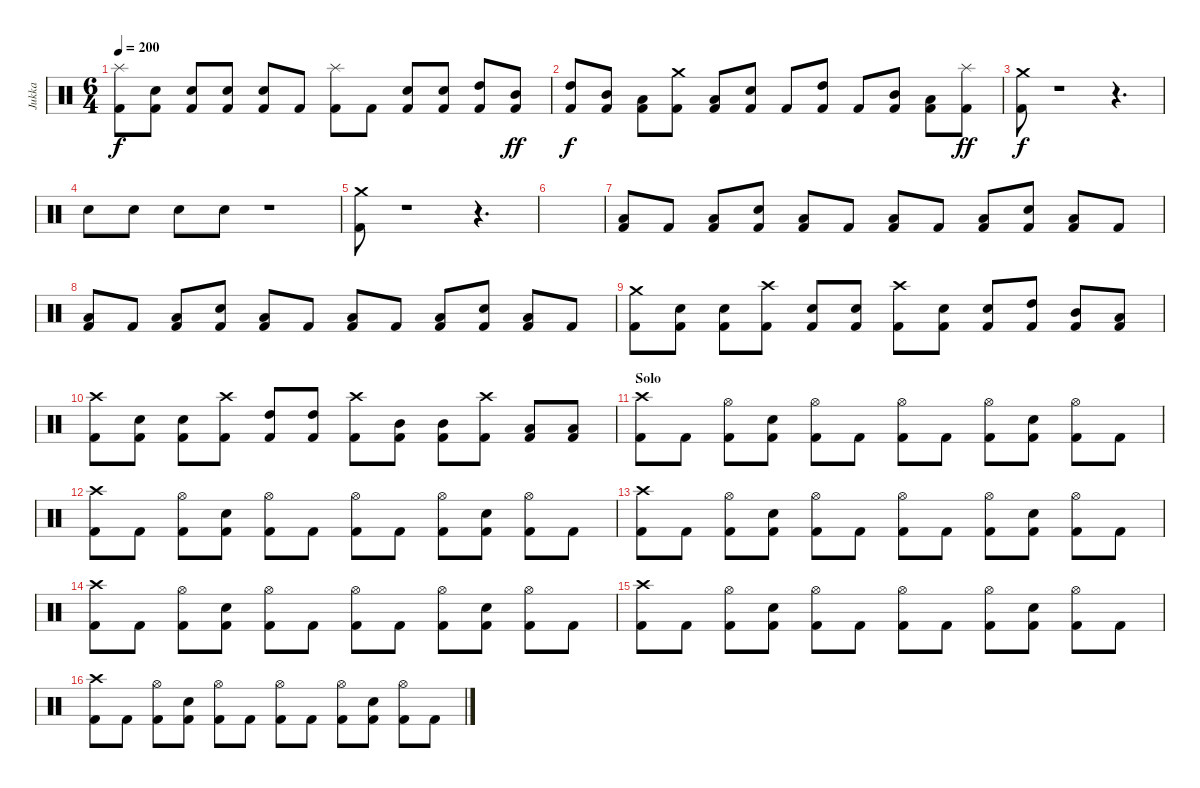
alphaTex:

\track ("Jukka" "Jukka") {instrument percussion}
\staff {score}
\articulation defaults
\ts (6 4)
\tempo 200
\clef neutral
\ks c
("Splash (hit)" "Kick (hit) 2").8{dy f} ("Snare (hit) 2" "Kick (hit) 2").8 ("Snare (hit) 2" "Kick (hit) 2").8 ("Snare (hit) 2" "Kick (hit) 2").8 ("Snare (hit) 2" "Kick (hit) 2").8 "Kick (hit) 2".8 ("Splash (hit)" "Kick (hit) 2").8 "Kick (hit) 2".8 ("Snare (hit) 2" "Kick (hit) 2").8 ("Snare (hit) 2" "Kick (hit) 2").8 ("High Tom (hit)" "Kick (hit) 2").8 ("Mid Tom (hit)" "Kick (hit) 2").8{dy ff} |
("High Tom (hit)" "Kick (hit) 2").8{dy f} ("Mid Tom (hit)" "Kick (hit) 2").8 ("Low Tom (hit)" "Kick (hit) 2").8 ("Crash medium (hit)" "Kick (hit) 2").8 ("Low Floor Tom (hit)" "Kick (hit) 2").8 ("Snare (hit) 2" "Kick (hit) 2").8 "Kick (hit) 2".8 ("High Tom (hit)" "Kick (hit) 2").8 "Kick (hit) 2".8 ("Mid Tom (hit)" "Kick (hit) 2").8 ("Low Tom (hit)" "Kick (hit) 2").8 ("Splash (hit)" "Kick (hit) 2").8{dy ff} |
("Crash medium (hit)" "Kick (hit) 2").8{dy f} r.1 r.4{d} |
"Snare (hit) 2".8 "Snare (hit) 2".8 "Snare (hit) 2".8 "Snare (hit) 2".8 r.1 |
("Crash medium (hit)" "Kick (hit) 2").8 r.1 r.4{d} |
|
("Low Floor Tom (hit)" "Kick (hit) 2").8 "Kick (hit) 2".8 ("Low Floor Tom (hit)" "Kick (hit) 2").8 ("Snare (hit) 2" "Kick (hit) 2").8 ("Low Floor Tom (hit)" "Kick (hit) 2").8 "Kick (hit) 2".8 ("Low Floor Tom (hit)" "Kick (hit) 2").8 "Kick (hit) 2".8 ("Low Floor Tom (hit)" "Kick (hit) 2").8 ("Snare (hit) 2" "Kick (hit) 2").8 ("Low Floor Tom (hit)" "Kick (hit) 2").8 "Kick (hit) 2".8 |
("Low Floor Tom (hit)" "Kick (hit) 2").8 "Kick (hit) 2".8 ("Low Floor Tom (hit)" "Kick (hit) 2").8 ("Snare (hit) 2" "Kick (hit) 2").8 ("Low Floor Tom (hit)" "Kick (hit) 2").8 "Kick (hit) 2".8 ("Low Floor Tom (hit)" "Kick (hit) 2").8 "Kick (hit) 2".8 ("Low Floor Tom (hit)" "Kick (hit) 2").8 ("Snare (hit) 2" "Kick (hit) 2").8 ("Low Floor Tom (hit)" "Kick (hit) 2").8 "Kick (hit) 2".8 |
("Crash medium (hit)" "Kick (hit) 2").8 ("Snare (hit) 2" "Kick (hit) 2").8 ("Snare (hit) 2" "Kick (hit) 2").8 ("Crash high (hit)" "Kick (hit) 2").8 ("Snare (hit) 2" "Kick (hit) 2").8 ("Snare (hit) 2" "Kick (hit) 2").8 ("Crash high (hit)" "Kick (hit) 2").8 ("Snare (hit) 2" "Kick (hit) 2").8 ("Snare (hit) 2" "Kick (hit) 2").8 ("High Tom (hit)" "Kick (hit) 2").8 ("Mid Tom (hit)" "Kick (hit) 2").8 ("Low Tom (hit)" "Kick (hit) 2").8 |
("Crash high (hit)" "Kick (hit) 2").8 ("Snare (hit) 2" "Kick (hit) 2").8 ("Snare (hit) 2" "Kick (hit) 2").8 ("Crash high (hit)" "Kick (hit) 2").8 ("High Tom (hit)" "Kick (hit) 2").8 ("High Tom (hit)" "Kick (hit) 2").8 ("Crash high (hit)" "Kick (hit) 2").8 ("Mid Tom (hit)" "Kick (hit) 2").8 ("Mid Tom (hit)" "Kick (hit) 2").8 ("Crash high (hit)" "Kick (hit) 2").8 ("Low Tom (hit)" "Kick (hit) 2").8 ("Low Tom (hit)" "Kick (hit) 2").8 |
\section ("" "Solo")
("Crash high (hit)" "Kick (hit) 2").8 "Kick (hit) 2".8 ("Hi-Hat (open)" "Kick (hit) 2").8 ("Snare (hit) 2" "Kick (hit) 2").8 ("Hi-Hat (open)" "Kick (hit) 2").8 "Kick (hit) 2".8 ("Hi-Hat (open)" "Kick (hit) 2").8 "Kick (hit) 2".8 ("Hi-Hat (open)" "Kick (hit) 2").8 ("Snare (hit) 2" "Kick (hit) 2").8 ("Hi-Hat (open)" "Kick (hit) 2").8 "Kick (hit) 2".8 |
("Crash high (hit)" "Kick (hit) 2").8 "Kick (hit) 2".8 ("Hi-Hat (open)" "Kick (hit) 2").8 ("Snare (hit) 2" "Kick (hit) 2").8 ("Hi-Hat (open)" "Kick (hit) 2").8 "Kick (hit) 2".8 ("Hi-Hat (open)" "Kick (hit) 2").8 "Kick (hit) 2".8 ("Hi-Hat (open)" "Kick (hit) 2").8 ("Snare (hit) 2" "Kick (hit) 2").8 ("Hi-Hat (open)" "Kick (hit) 2").8 "Kick (hit) 2".8 |
("Crash high (hit)" "Kick (hit) 2").8 "Kick (hit) 2".8 ("Hi-Hat (open)" "Kick (hit) 2").8 ("Snare (hit) 2" "Kick (hit) 2").8 ("Hi-Hat (open)" "Kick (hit) 2").8 "Kick (hit) 2".8 ("Hi-Hat (open)" "Kick (hit) 2").8 "Kick (hit) 2".8 ("Hi-Hat (open)" "Kick (hit) 2").8 ("Snare (hit) 2" "Kick (hit) 2").8 ("Hi-Hat (open)" "Kick (hit) 2").8 "Kick (hit) 2".8 |
("Crash high (hit)" "Kick (hit) 2").8 "Kick (hit) 2".8 ("Hi-Hat (open)" "Kick (hit) 2").8 ("Snare (hit) 2" "Kick (hit) 2").8 ("Hi-Hat (open)" "Kick (hit) 2").8 "Kick (hit) 2".8 ("Hi-Hat (open)" "Kick (hit) 2").8 "Kick (hit) 2".8 ("Hi-Hat (open)" "Kick (hit) 2").8 ("Snare (hit) 2" "Kick (hit) 2").8 ("Hi-Hat (open)" "Kick (hit) 2").8 "Kick (hit) 2".8 |
("Crash high (hit)" "Kick (hit) 2").8 "Kick (hit) 2".8 ("Hi-Hat (open)" "Kick (hit) 2").8 ("Snare (hit) 2" "Kick (hit) 2").8 ("Hi-Hat (open)" "Kick (hit) 2").8 "Kick (hit) 2".8 ("Hi-Hat (open)" "Kick (hit) 2").8 "Kick (hit) 2".8 ("Hi-Hat (open)" "Kick (hit) 2").8 ("Snare (hit) 2" "Kick (hit) 2").8 ("Hi-Hat (open)" "Kick (hit) 2").8 "Kick (hit) 2".8 |
("Crash high (hit)" "Kick (hit) 2").8 "Kick (hit) 2".8 ("Hi-Hat (open)" "Kick (hit) 2").8 ("Snare (hit) 2" "Kick (hit) 2").8 ("Hi-Hat (open)" "Kick (hit) 2").8 "Kick (hit) 2".8 ("Hi-Hat (open)" "Kick (hit) 2").8 "Kick (hit) 2".8 ("Hi-Hat (open)" "Kick (hit) 2").8 ("Snare (hit) 2" "Kick (hit) 2").8 ("Hi-Hat (open)" "Kick (hit) 2").8 "Kick (hit) 2".8
